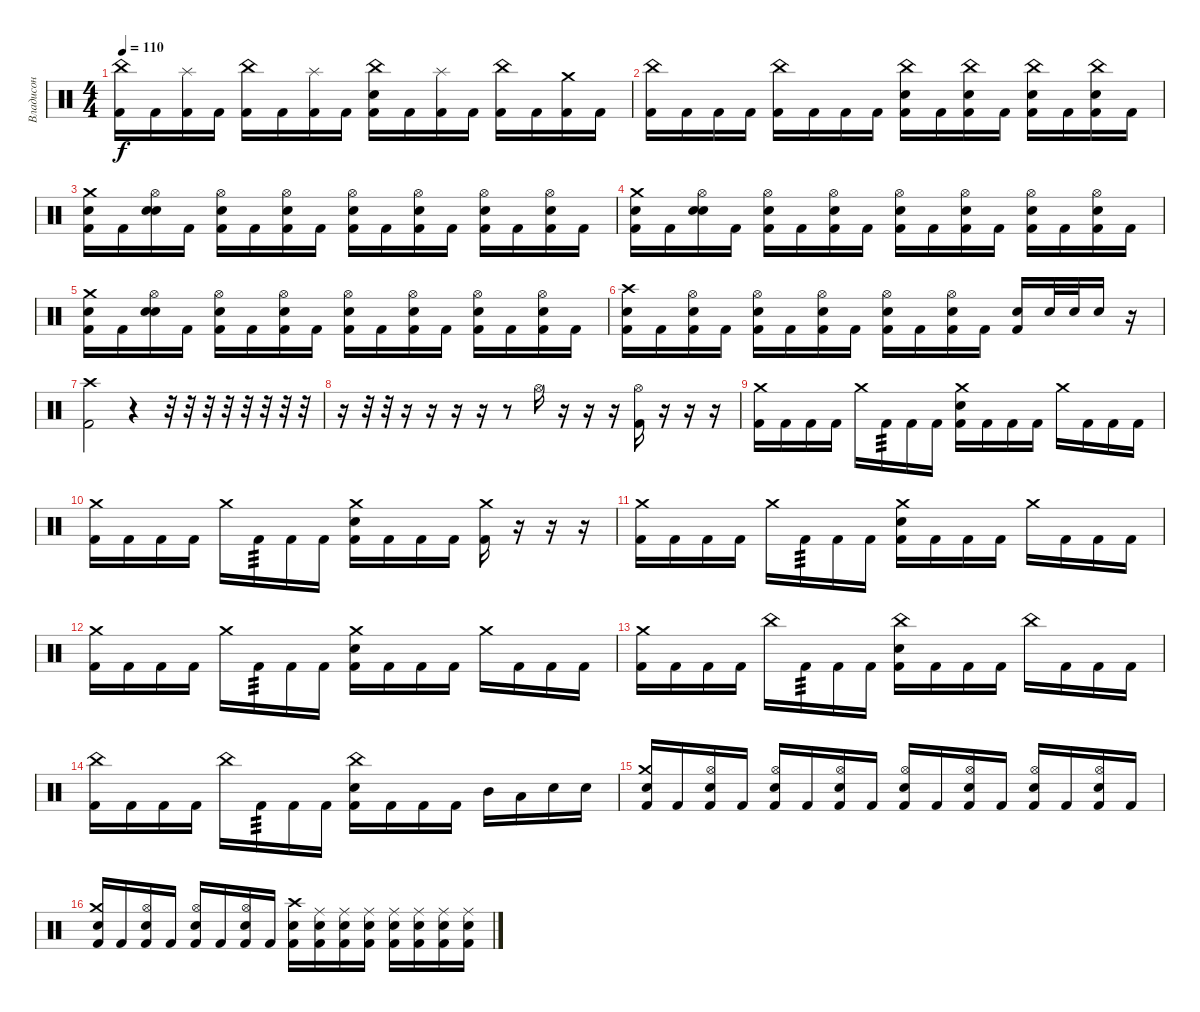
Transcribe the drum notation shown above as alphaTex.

\track ("Владисон" "Владисон") {instrument percussion}
\staff
\articulation defaults
\ts (4 4)
\tempo 110
\clef neutral
\ks c
("China (hit)" "Kick (hit) 2").16{dy f} "Kick (hit) 2".16 ("Splash (hit)" "Kick (hit) 2").16 "Kick (hit) 2".16 ("China (hit)" "Kick (hit) 2").16 "Kick (hit) 2".16 ("Splash (hit)" "Kick (hit) 2").16 "Kick (hit) 2".16 ("China (hit)" "Snare (hit) 2" "Kick (hit) 2").16 "Kick (hit) 2".16 ("Splash (hit)" "Kick (hit) 2").16 "Kick (hit) 2".16 ("China (hit)" "Kick (hit) 2").16 "Kick (hit) 2".16 ("Crash medium (hit)" "Kick (hit) 2").16 "Kick (hit) 2".16 |
("China (hit)" "Kick (hit) 2").16 "Kick (hit) 2".16 "Kick (hit) 2".16 "Kick (hit) 2".16 ("China (hit)" "Kick (hit) 2").16 "Kick (hit) 2".16 "Kick (hit) 2".16 "Kick (hit) 2".16 ("China (hit)" "Snare (hit) 2" "Kick (hit) 2").16 "Kick (hit) 2".16 ("China (hit)" "Snare (hit) 2" "Kick (hit) 2").16 "Kick (hit) 2".16 ("China (hit)" "Snare (hit) 2" "Kick (hit) 2").16 "Kick (hit) 2".16 ("China (hit)" "Snare (hit) 2" "Kick (hit) 2").16 "Kick (hit) 2".16 |
("Crash medium (hit)" "Snare (hit) 2" "Kick (hit) 2").16 "Kick (hit) 2".16 ("Hi-Hat (open)" "Snare (hit) 2" "Snare (hit) 2").16 "Kick (hit) 2".16 ("Hi-Hat (open)" "Snare (hit) 2" "Kick (hit) 2").16 "Kick (hit) 2".16 ("Hi-Hat (open)" "Snare (hit) 2" "Kick (hit) 2").16 "Kick (hit) 2".16 ("Hi-Hat (open)" "Snare (hit) 2" "Kick (hit) 2").16 "Kick (hit) 2".16 ("Hi-Hat (open)" "Snare (hit) 2" "Kick (hit) 2").16 "Kick (hit) 2".16 ("Hi-Hat (open)" "Snare (hit) 2" "Kick (hit) 2").16 "Kick (hit) 2".16 ("Hi-Hat (open)" "Snare (hit) 2" "Kick (hit) 2").16 "Kick (hit) 2".16 |
("Crash medium (hit)" "Snare (hit) 2" "Kick (hit) 2").16 "Kick (hit) 2".16 ("Hi-Hat (open)" "Snare (hit) 2" "Snare (hit) 2").16 "Kick (hit) 2".16 ("Hi-Hat (open)" "Snare (hit) 2" "Kick (hit) 2").16 "Kick (hit) 2".16 ("Hi-Hat (open)" "Snare (hit) 2" "Kick (hit) 2").16 "Kick (hit) 2".16 ("Hi-Hat (open)" "Snare (hit) 2" "Kick (hit) 2").16 "Kick (hit) 2".16 ("Hi-Hat (open)" "Snare (hit) 2" "Kick (hit) 2").16 "Kick (hit) 2".16 ("Hi-Hat (open)" "Snare (hit) 2" "Kick (hit) 2").16 "Kick (hit) 2".16 ("Hi-Hat (open)" "Snare (hit) 2" "Kick (hit) 2").16 "Kick (hit) 2".16 |
("Crash medium (hit)" "Snare (hit) 2" "Kick (hit) 2").16 "Kick (hit) 2".16 ("Hi-Hat (open)" "Snare (hit) 2" "Snare (hit) 2").16 "Kick (hit) 2".16 ("Hi-Hat (open)" "Snare (hit) 2" "Kick (hit) 2").16 "Kick (hit) 2".16 ("Hi-Hat (open)" "Snare (hit) 2" "Kick (hit) 2").16 "Kick (hit) 2".16 ("Hi-Hat (open)" "Snare (hit) 2" "Kick (hit) 2").16 "Kick (hit) 2".16 ("Hi-Hat (open)" "Snare (hit) 2" "Kick (hit) 2").16 "Kick (hit) 2".16 ("Hi-Hat (open)" "Snare (hit) 2" "Kick (hit) 2").16 "Kick (hit) 2".16 ("Hi-Hat (open)" "Snare (hit) 2" "Kick (hit) 2").16 "Kick (hit) 2".16 |
("Crash high (hit)" "Snare (hit) 2" "Kick (hit) 2").16 "Kick (hit) 2".16 ("Hi-Hat (open)" "Snare (hit) 2" "Kick (hit) 2").16 "Kick (hit) 2".16 ("Hi-Hat (open)" "Snare (hit) 2" "Kick (hit) 2").16 "Kick (hit) 2".16 ("Hi-Hat (open)" "Snare (hit) 2" "Kick (hit) 2").16 "Kick (hit) 2".16 ("Hi-Hat (open)" "Snare (hit) 2" "Kick (hit) 2").16 "Kick (hit) 2".16 ("Hi-Hat (open)" "Snare (hit) 2" "Kick (hit) 2").16 "Kick (hit) 2".16 ("Snare (hit) 2" "Kick (hit) 2").16 "Snare (hit) 2".32 "Snare (hit) 2".32 "Snare (hit) 2".16 r.16 |
("Crash high (hit)" "Kick (hit) 2").2 r.4 r.32 r.32 r.32 r.32 r.32 r.32 r.32 r.32 |
r.16 r.32 r.32 r.16 r.16 r.16 r.16 r.8 "Hi-Hat (open)".16 r.16 r.16 r.16 ("Hi-Hat (open)" "Kick (hit) 2").16 r.16 r.16 r.16 |
("Crash medium (hit)" "Kick (hit) 2").16 "Kick (hit) 2".16 "Kick (hit) 2".16 "Kick (hit) 2".16 "Crash medium (hit)".16 "Kick (hit) 2".16{tp 3} "Kick (hit) 2".16 "Kick (hit) 2".16 ("Crash medium (hit)" "Snare (hit) 2" "Kick (hit) 2").16 "Kick (hit) 2".16 "Kick (hit) 2".16 "Kick (hit) 2".16 "Crash medium (hit)".16 "Kick (hit) 2".16 "Kick (hit) 2".16 "Kick (hit) 2".16 |
("Crash medium (hit)" "Kick (hit) 2").16 "Kick (hit) 2".16 "Kick (hit) 2".16 "Kick (hit) 2".16 "Crash medium (hit)".16 "Kick (hit) 2".16{tp 3} "Kick (hit) 2".16 "Kick (hit) 2".16 ("Crash medium (hit)" "Snare (hit) 2" "Kick (hit) 2").16 "Kick (hit) 2".16 "Kick (hit) 2".16 "Kick (hit) 2".16 ("Crash medium (hit)" "Kick (hit) 2").16 r.16 r.16 r.16 |
("Crash medium (hit)" "Kick (hit) 2").16 "Kick (hit) 2".16 "Kick (hit) 2".16 "Kick (hit) 2".16 "Crash medium (hit)".16 "Kick (hit) 2".16{tp 3} "Kick (hit) 2".16 "Kick (hit) 2".16 ("Crash medium (hit)" "Snare (hit) 2" "Kick (hit) 2").16 "Kick (hit) 2".16 "Kick (hit) 2".16 "Kick (hit) 2".16 "Crash medium (hit)".16 "Kick (hit) 2".16 "Kick (hit) 2".16 "Kick (hit) 2".16 |
("Crash medium (hit)" "Kick (hit) 2").16 "Kick (hit) 2".16 "Kick (hit) 2".16 "Kick (hit) 2".16 "Crash medium (hit)".16 "Kick (hit) 2".16{tp 3} "Kick (hit) 2".16 "Kick (hit) 2".16 ("Crash medium (hit)" "Snare (hit) 2" "Kick (hit) 2").16 "Kick (hit) 2".16 "Kick (hit) 2".16 "Kick (hit) 2".16 "Crash medium (hit)".16 "Kick (hit) 2".16 "Kick (hit) 2".16 "Kick (hit) 2".16 |
("Crash medium (hit)" "Kick (hit) 2").16 "Kick (hit) 2".16 "Kick (hit) 2".16 "Kick (hit) 2".16 "China (hit)".16 "Kick (hit) 2".16{tp 3} "Kick (hit) 2".16 "Kick (hit) 2".16 ("China (hit)" "Snare (hit) 2" "Kick (hit) 2").16 "Kick (hit) 2".16 "Kick (hit) 2".16 "Kick (hit) 2".16 "China (hit)".16 "Kick (hit) 2".16 "Kick (hit) 2".16 "Kick (hit) 2".16 |
("China (hit)" "Kick (hit) 2").16 "Kick (hit) 2".16 "Kick (hit) 2".16 "Kick (hit) 2".16 "China (hit)".16 "Kick (hit) 2".16{tp 3} "Kick (hit) 2".16 "Kick (hit) 2".16 ("China (hit)" "Snare (hit) 2" "Kick (hit) 2").16 "Kick (hit) 2".16 "Kick (hit) 2".16 "Kick (hit) 2".16 "Mid Tom (hit)".16 "Low Tom (hit)".16 "Electric Snare (hit)".16 "Electric Snare (hit)".16 |
("Crash medium (hit)" "Electric Snare (hit)" "Kick (hit) 2").16 "Kick (hit) 2".16 ("Hi-Hat (open)" "Electric Snare (hit)" "Kick (hit) 2").16 "Kick (hit) 2".16 ("Hi-Hat (open)" "Electric Snare (hit)" "Kick (hit) 2").16 "Kick (hit) 2".16 ("Hi-Hat (open)" "Electric Snare (hit)" "Kick (hit) 2").16 "Kick (hit) 2".16 ("Hi-Hat (open)" "Electric Snare (hit)" "Kick (hit) 2").16 "Kick (hit) 2".16 ("Hi-Hat (open)" "Electric Snare (hit)" "Kick (hit) 2").16 "Kick (hit) 2".16 ("Hi-Hat (open)" "Electric Snare (hit)" "Kick (hit) 2").16 "Kick (hit) 2".16 ("Hi-Hat (open)" "Electric Snare (hit)" "Kick (hit) 2").16 "Kick (hit) 2".16 |
("Crash medium (hit)" "Electric Snare (hit)" "Kick (hit) 2").16 "Kick (hit) 2".16 ("Hi-Hat (open)" "Electric Snare (hit)" "Kick (hit) 2").16 "Kick (hit) 2".16 ("Hi-Hat (open)" "Electric Snare (hit)" "Kick (hit) 2").16 "Kick (hit) 2".16 ("Hi-Hat (open)" "Electric Snare (hit)" "Kick (hit) 2").16 "Kick (hit) 2".16 ("Crash high (hit)" "Electric Snare (hit)" "Kick (hit) 2").16 ("Ride (middle)" "Electric Snare (hit)" "Kick (hit) 2").16 ("Ride (middle)" "Electric Snare (hit)" "Kick (hit) 2").16 ("Ride (middle)" "Electric Snare (hit)" "Kick (hit) 2").16 ("Ride (middle)" "Electric Snare (hit)" "Kick (hit) 2").16 ("Ride (middle)" "Electric Snare (hit)" "Kick (hit) 2").16 ("Ride (middle)" "Electric Snare (hit)" "Kick (hit) 2").16 ("Ride (middle)" "Electric Snare (hit)" "Kick (hit) 2").16
